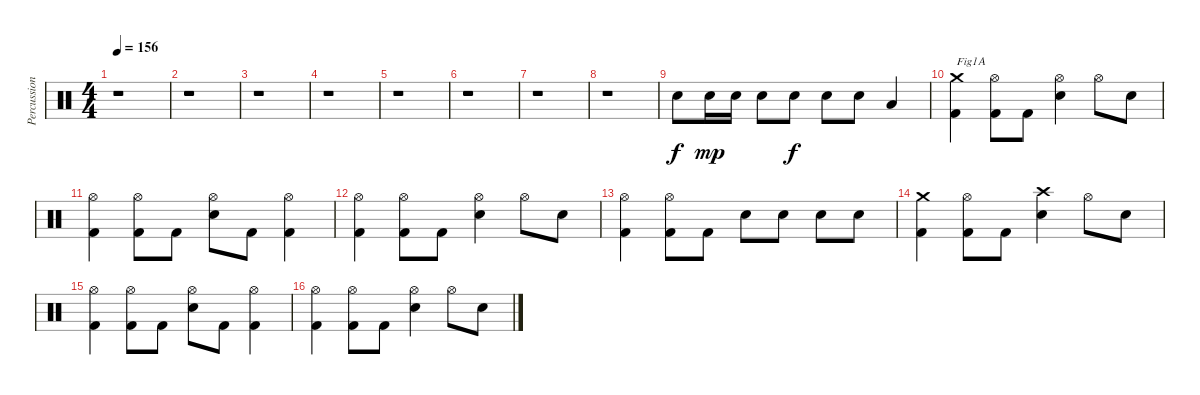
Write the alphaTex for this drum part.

\track ("Percussions" "Percussion") {instrument percussion}
\staff {score}
\articulation defaults
\ts (4 4)
\tempo 156
\clef neutral
\ks c
r.1{dy f} |
r.1 |
r.1 |
r.1 |
r.1 |
r.1 |
r.1 |
r.1 |
"Snare (hit) 2".8 "Snare (hit) 2".16{dy mp} "Snare (hit) 2".16 "Snare (hit) 2".8 "Snare (hit) 2".8{dy f} "Snare (hit) 2".8 "Snare (hit) 2".8 "Low Tom (hit)".4 |
("Kick (hit) 2" "Crash medium (hit)").4{txt "Fig1A"} ("Kick (hit) 2" "Hi-Hat (open)").8 "Kick (hit) 2".8 ("Electric Snare (hit)" "Hi-Hat (open)").4 "Hi-Hat (open)".8 "Electric Snare (hit)".8 |
("Kick (hit) 2" "Hi-Hat (open)").4 ("Kick (hit) 2" "Hi-Hat (open)").8 "Kick (hit) 2".8 ("Electric Snare (hit)" "Hi-Hat (open)").8 "Kick (hit) 2".8 ("Kick (hit) 2" "Hi-Hat (open)").4 |
("Kick (hit) 2" "Hi-Hat (open)").4 ("Kick (hit) 2" "Hi-Hat (open)").8 "Kick (hit) 2".8 ("Electric Snare (hit)" "Hi-Hat (open)").4 "Hi-Hat (open)".8 "Electric Snare (hit)".8 |
("Kick (hit) 2" "Hi-Hat (open)").4 ("Kick (hit) 2" "Hi-Hat (open)").8 "Kick (hit) 2".8 "Electric Snare (hit)".8 "Electric Snare (hit)".8 "Electric Snare (hit)".8 "Electric Snare (hit)".8 |
("Kick (hit) 2" "Crash medium (hit)").4 ("Kick (hit) 2" "Hi-Hat (open)").8 "Kick (hit) 2".8 ("Electric Snare (hit)" "Crash high (hit)").4 "Hi-Hat (open)".8 "Electric Snare (hit)".8 |
("Kick (hit) 2" "Hi-Hat (open)").4 ("Kick (hit) 2" "Hi-Hat (open)").8 "Kick (hit) 2".8 ("Electric Snare (hit)" "Hi-Hat (open)").8 "Kick (hit) 2".8 ("Kick (hit) 2" "Hi-Hat (open)").4 |
("Kick (hit) 2" "Hi-Hat (open)").4 ("Kick (hit) 2" "Hi-Hat (open)").8 "Kick (hit) 2".8 ("Electric Snare (hit)" "Hi-Hat (open)").4 "Hi-Hat (open)".8 "Electric Snare (hit)".8
